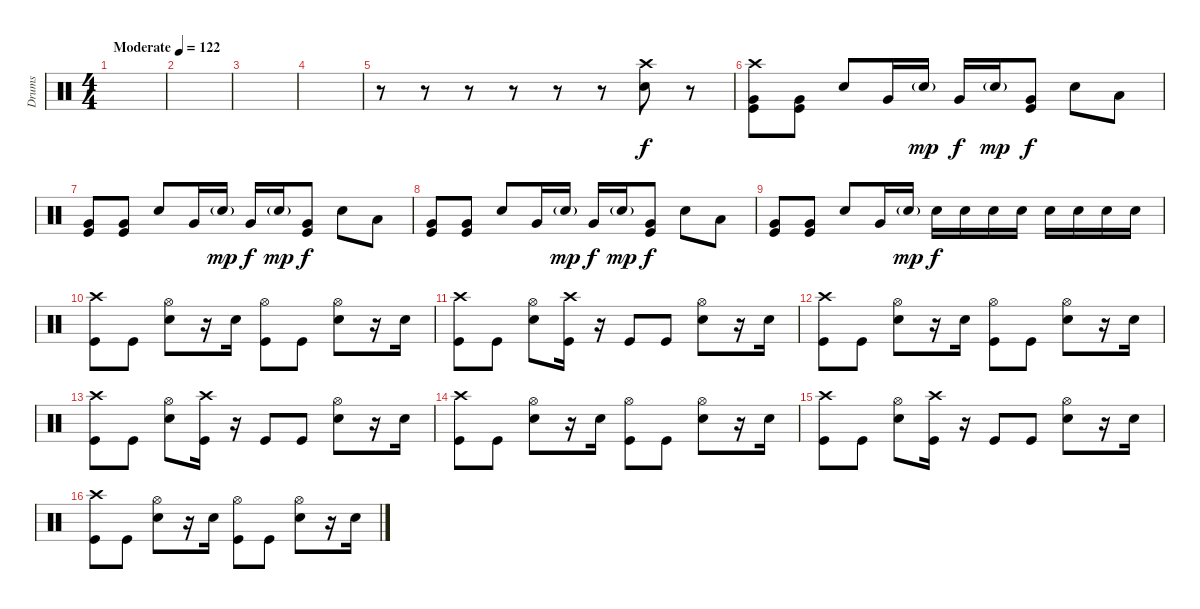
\track ("Drums" "Drums") {instrument percussion}
\staff {score}
\articulation defaults
\ts (4 4)
\tempo (122 "Moderate")
\clef neutral
\ks c
|
|
|
|
r.8 r.8 r.8 r.8 r.8 r.8 ("Crash high (hit)" "Snare (hit) 2").8 r.8 |
("Crash high (hit)" "Very Low Tom (hit)" "Kick (hit)").8 ("Very Low Tom (hit)" "Kick (hit)").8 "Snare (hit) 2".8 "Very Low Tom (hit)".16 "Snare (hit) 2"{g}.16{dy mp} "Very Low Tom (hit)".16{dy f} "Snare (hit) 2"{g}.16{dy mp} ("Very Low Tom (hit)" "Kick (hit)").8{dy f} "Snare (hit) 2".8 "Low Tom (hit)".8 |
("Very Low Tom (hit)" "Kick (hit)").8 ("Very Low Tom (hit)" "Kick (hit)").8 "Snare (hit) 2".8 "Very Low Tom (hit)".16 "Snare (hit) 2"{g}.16{dy mp} "Very Low Tom (hit)".16{dy f} "Snare (hit) 2"{g}.16{dy mp} ("Very Low Tom (hit)" "Kick (hit)").8{dy f} "Snare (hit) 2".8 "Low Tom (hit)".8 |
("Very Low Tom (hit)" "Kick (hit)").8 ("Very Low Tom (hit)" "Kick (hit)").8 "Snare (hit) 2".8 "Very Low Tom (hit)".16 "Snare (hit) 2"{g}.16{dy mp} "Very Low Tom (hit)".16{dy f} "Snare (hit) 2"{g}.16{dy mp} ("Very Low Tom (hit)" "Kick (hit)").8{dy f} "Snare (hit) 2".8 "Low Tom (hit)".8 |
("Very Low Tom (hit)" "Kick (hit)").8 ("Very Low Tom (hit)" "Kick (hit)").8 "Snare (hit) 2".8 "Very Low Tom (hit)".16 "Snare (hit) 2"{g}.16{dy mp} "Snare (hit) 2".16{dy f} "Snare (hit) 2".16 "Snare (hit) 2".16 "Snare (hit) 2".16 "Snare (hit) 2".16 "Snare (hit) 2".16 "Snare (hit) 2".16 "Snare (hit) 2".16 |
("Crash high (hit)" "Kick (hit)").8 "Kick (hit)".8 ("Hi-Hat (open)" "Snare (hit) 2").8 r.16 "Snare (hit) 2".16 ("Hi-Hat (open)" "Kick (hit)").8 "Kick (hit)".8 ("Hi-Hat (open)" "Snare (hit) 2").8 r.16 "Snare (hit) 2".16 |
("Crash high (hit)" "Kick (hit)").8 "Kick (hit)".8 ("Hi-Hat (open)" "Snare (hit) 2").8 ("Crash high (hit)" "Kick (hit)").16 r.16 "Kick (hit)".8 "Kick (hit)".8 ("Hi-Hat (open)" "Snare (hit) 2").8 r.16 "Snare (hit) 2".16 |
("Crash high (hit)" "Kick (hit)").8 "Kick (hit)".8 ("Hi-Hat (open)" "Snare (hit) 2").8 r.16 "Snare (hit) 2".16 ("Hi-Hat (open)" "Kick (hit)").8 "Kick (hit)".8 ("Hi-Hat (open)" "Snare (hit) 2").8 r.16 "Snare (hit) 2".16 |
("Crash high (hit)" "Kick (hit)").8 "Kick (hit)".8 ("Hi-Hat (open)" "Snare (hit) 2").8 ("Crash high (hit)" "Kick (hit)").16 r.16 "Kick (hit)".8 "Kick (hit)".8 ("Hi-Hat (open)" "Snare (hit) 2").8 r.16 "Snare (hit) 2".16 |
("Crash high (hit)" "Kick (hit)").8 "Kick (hit)".8 ("Hi-Hat (open)" "Snare (hit) 2").8 r.16 "Snare (hit) 2".16 ("Hi-Hat (open)" "Kick (hit)").8 "Kick (hit)".8 ("Hi-Hat (open)" "Snare (hit) 2").8 r.16 "Snare (hit) 2".16 |
("Crash high (hit)" "Kick (hit)").8 "Kick (hit)".8 ("Hi-Hat (open)" "Snare (hit) 2").8 ("Crash high (hit)" "Kick (hit)").16 r.16 "Kick (hit)".8 "Kick (hit)".8 ("Hi-Hat (open)" "Snare (hit) 2").8 r.16 "Snare (hit) 2".16 |
("Crash high (hit)" "Kick (hit)").8 "Kick (hit)".8 ("Hi-Hat (open)" "Snare (hit) 2").8 r.16 "Snare (hit) 2".16 ("Hi-Hat (open)" "Kick (hit)").8 "Kick (hit)".8 ("Hi-Hat (open)" "Snare (hit) 2").8 r.16 "Snare (hit) 2".16
